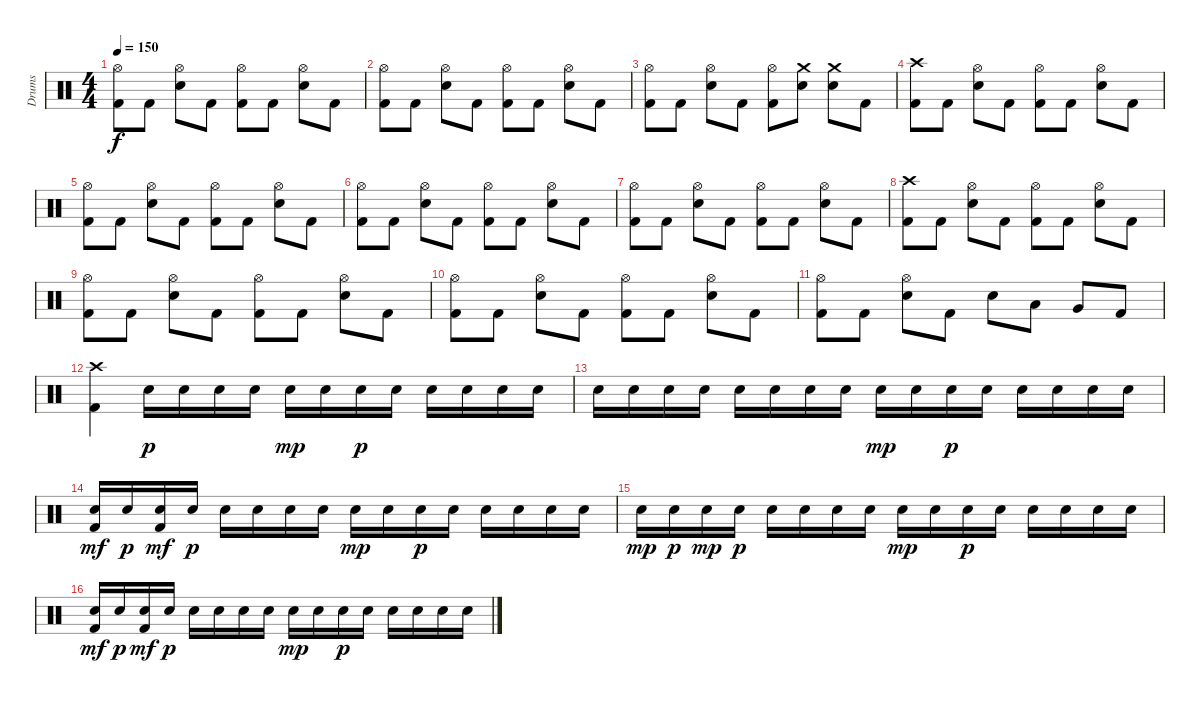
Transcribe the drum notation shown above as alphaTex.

\track ("Drums" "Drums") {instrument percussion}
\staff {score}
\articulation defaults
\ts (4 4)
\tempo 150
\clef neutral
\ks c
("Hi-Hat (open)" "Kick (hit) 2").8{dy f} "Kick (hit) 2".8 ("Hi-Hat (open)" "Electric Snare (hit)").8 "Kick (hit) 2".8 ("Hi-Hat (open)" "Kick (hit) 2").8 "Kick (hit) 2".8 ("Hi-Hat (open)" "Electric Snare (hit)").8 "Kick (hit) 2".8 |
("Hi-Hat (open)" "Kick (hit) 2").8 "Kick (hit) 2".8 ("Hi-Hat (open)" "Electric Snare (hit)").8 "Kick (hit) 2".8 ("Hi-Hat (open)" "Kick (hit) 2").8 "Kick (hit) 2".8 ("Hi-Hat (open)" "Electric Snare (hit)").8 "Kick (hit) 2".8 |
("Hi-Hat (open)" "Kick (hit) 2").8 "Kick (hit) 2".8 ("Hi-Hat (open)" "Electric Snare (hit)").8 "Kick (hit) 2".8 ("Hi-Hat (open)" "Kick (hit) 2").8 ("Crash medium (hit)" "Electric Snare (hit)").8 ("Crash medium (hit)" "Electric Snare (hit)").8 "Kick (hit) 2".8 |
("Crash high (hit)" "Kick (hit) 2").8 "Kick (hit) 2".8 ("Hi-Hat (open)" "Electric Snare (hit)").8 "Kick (hit) 2".8 ("Hi-Hat (open)" "Kick (hit) 2").8 "Kick (hit) 2".8 ("Hi-Hat (open)" "Electric Snare (hit)").8 "Kick (hit) 2".8 |
("Hi-Hat (open)" "Kick (hit) 2").8 "Kick (hit) 2".8 ("Hi-Hat (open)" "Electric Snare (hit)").8 "Kick (hit) 2".8 ("Hi-Hat (open)" "Kick (hit) 2").8 "Kick (hit) 2".8 ("Hi-Hat (open)" "Electric Snare (hit)").8 "Kick (hit) 2".8 |
("Hi-Hat (open)" "Kick (hit) 2").8 "Kick (hit) 2".8 ("Hi-Hat (open)" "Electric Snare (hit)").8 "Kick (hit) 2".8 ("Hi-Hat (open)" "Kick (hit) 2").8 "Kick (hit) 2".8 ("Hi-Hat (open)" "Electric Snare (hit)").8 "Kick (hit) 2".8 |
("Hi-Hat (open)" "Kick (hit) 2").8 "Kick (hit) 2".8 ("Hi-Hat (open)" "Electric Snare (hit)").8 "Kick (hit) 2".8 ("Hi-Hat (open)" "Kick (hit) 2").8 "Kick (hit) 2".8 ("Hi-Hat (open)" "Electric Snare (hit)").8 "Kick (hit) 2".8 |
("Crash high (hit)" "Kick (hit) 2").8 "Kick (hit) 2".8 ("Hi-Hat (open)" "Electric Snare (hit)").8 "Kick (hit) 2".8 ("Hi-Hat (open)" "Kick (hit) 2").8 "Kick (hit) 2".8 ("Hi-Hat (open)" "Electric Snare (hit)").8 "Kick (hit) 2".8 |
("Hi-Hat (open)" "Kick (hit) 2").8 "Kick (hit) 2".8 ("Hi-Hat (open)" "Electric Snare (hit)").8 "Kick (hit) 2".8 ("Hi-Hat (open)" "Kick (hit) 2").8 "Kick (hit) 2".8 ("Hi-Hat (open)" "Electric Snare (hit)").8 "Kick (hit) 2".8 |
("Hi-Hat (open)" "Kick (hit) 2").8 "Kick (hit) 2".8 ("Hi-Hat (open)" "Electric Snare (hit)").8 "Kick (hit) 2".8 ("Hi-Hat (open)" "Kick (hit) 2").8 "Kick (hit) 2".8 ("Hi-Hat (open)" "Electric Snare (hit)").8 "Kick (hit) 2".8 |
("Hi-Hat (open)" "Kick (hit) 2").8 "Kick (hit) 2".8 ("Hi-Hat (open)" "Electric Snare (hit)").8 "Kick (hit) 2".8 "Electric Snare (hit)".8 "Low Tom (hit)".8 "Very Low Tom (hit)".8 "Kick (hit) 2".8 |
("Crash high (hit)" "Kick (hit) 2").4 "Electric Snare (hit)".16{dy p} "Electric Snare (hit)".16 "Electric Snare (hit)".16 "Electric Snare (hit)".16 "Electric Snare (hit)".16{dy mp} "Electric Snare (hit)".16 "Electric Snare (hit)".16{dy p} "Electric Snare (hit)".16 "Electric Snare (hit)".16 "Electric Snare (hit)".16 "Electric Snare (hit)".16 "Electric Snare (hit)".16 |
"Electric Snare (hit)".16 "Electric Snare (hit)".16 "Electric Snare (hit)".16 "Electric Snare (hit)".16 "Electric Snare (hit)".16 "Electric Snare (hit)".16 "Electric Snare (hit)".16 "Electric Snare (hit)".16 "Electric Snare (hit)".16{dy mp} "Electric Snare (hit)".16 "Electric Snare (hit)".16{dy p} "Electric Snare (hit)".16 "Electric Snare (hit)".16 "Electric Snare (hit)".16 "Electric Snare (hit)".16 "Electric Snare (hit)".16 |
("Electric Snare (hit)" "Kick (hit) 2").16{dy mf} "Electric Snare (hit)".16{dy p} ("Electric Snare (hit)" "Kick (hit) 2").16{dy mf} "Electric Snare (hit)".16{dy p} "Electric Snare (hit)".16 "Electric Snare (hit)".16 "Electric Snare (hit)".16 "Electric Snare (hit)".16 "Electric Snare (hit)".16{dy mp} "Electric Snare (hit)".16 "Electric Snare (hit)".16{dy p} "Electric Snare (hit)".16 "Electric Snare (hit)".16 "Electric Snare (hit)".16 "Electric Snare (hit)".16 "Electric Snare (hit)".16 |
"Electric Snare (hit)".16{dy mp} "Electric Snare (hit)".16{dy p} "Electric Snare (hit)".16{dy mp} "Electric Snare (hit)".16{dy p} "Electric Snare (hit)".16 "Electric Snare (hit)".16 "Electric Snare (hit)".16 "Electric Snare (hit)".16 "Electric Snare (hit)".16{dy mp} "Electric Snare (hit)".16 "Electric Snare (hit)".16{dy p} "Electric Snare (hit)".16 "Electric Snare (hit)".16 "Electric Snare (hit)".16 "Electric Snare (hit)".16 "Electric Snare (hit)".16 |
("Electric Snare (hit)" "Kick (hit) 2").16{dy mf} "Electric Snare (hit)".16{dy p} ("Electric Snare (hit)" "Kick (hit) 2").16{dy mf} "Electric Snare (hit)".16{dy p} "Electric Snare (hit)".16 "Electric Snare (hit)".16 "Electric Snare (hit)".16 "Electric Snare (hit)".16 "Electric Snare (hit)".16{dy mp} "Electric Snare (hit)".16 "Electric Snare (hit)".16{dy p} "Electric Snare (hit)".16 "Electric Snare (hit)".16 "Electric Snare (hit)".16 "Electric Snare (hit)".16 "Electric Snare (hit)".16
